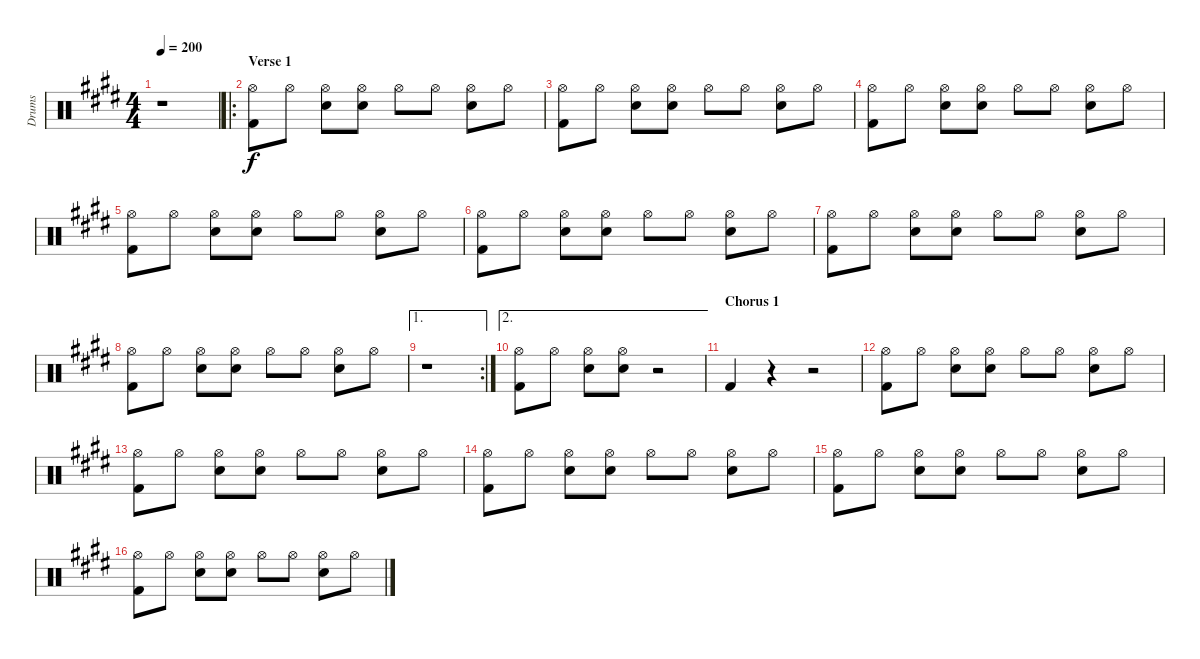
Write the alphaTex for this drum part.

\track ("Drums" "Drums") {instrument percussion}
\staff {score}
\articulation defaults
\ts (4 4)
\section ("" "")
\tempo 200
\clef neutral
\ks e
r.1{dy f} |
\ro
\section ("" "Verse 1")
("Hi-Hat (open)" "Kick (hit) 2").8 "Hi-Hat (open)".8 ("Hi-Hat (open)" "Snare (hit) 2").8 ("Hi-Hat (open)" "Snare (hit) 2").8 "Hi-Hat (open)".8 "Hi-Hat (open)".8 ("Hi-Hat (open)" "Snare (hit) 2").8 "Hi-Hat (open)".8 |
("Hi-Hat (open)" "Kick (hit) 2").8 "Hi-Hat (open)".8 ("Hi-Hat (open)" "Snare (hit) 2").8 ("Hi-Hat (open)" "Snare (hit) 2").8 "Hi-Hat (open)".8 "Hi-Hat (open)".8 ("Hi-Hat (open)" "Snare (hit) 2").8 "Hi-Hat (open)".8 |
("Hi-Hat (open)" "Kick (hit) 2").8 "Hi-Hat (open)".8 ("Hi-Hat (open)" "Snare (hit) 2").8 ("Hi-Hat (open)" "Snare (hit) 2").8 "Hi-Hat (open)".8 "Hi-Hat (open)".8 ("Hi-Hat (open)" "Snare (hit) 2").8 "Hi-Hat (open)".8 |
("Hi-Hat (open)" "Kick (hit) 2").8 "Hi-Hat (open)".8 ("Hi-Hat (open)" "Snare (hit) 2").8 ("Hi-Hat (open)" "Snare (hit) 2").8 "Hi-Hat (open)".8 "Hi-Hat (open)".8 ("Hi-Hat (open)" "Snare (hit) 2").8 "Hi-Hat (open)".8 |
("Hi-Hat (open)" "Kick (hit) 2").8 "Hi-Hat (open)".8 ("Hi-Hat (open)" "Snare (hit) 2").8 ("Hi-Hat (open)" "Snare (hit) 2").8 "Hi-Hat (open)".8 "Hi-Hat (open)".8 ("Hi-Hat (open)" "Snare (hit) 2").8 "Hi-Hat (open)".8 |
("Hi-Hat (open)" "Kick (hit) 2").8 "Hi-Hat (open)".8 ("Hi-Hat (open)" "Snare (hit) 2").8 ("Hi-Hat (open)" "Snare (hit) 2").8 "Hi-Hat (open)".8 "Hi-Hat (open)".8 ("Hi-Hat (open)" "Snare (hit) 2").8 "Hi-Hat (open)".8 |
("Hi-Hat (open)" "Kick (hit) 2").8 "Hi-Hat (open)".8 ("Hi-Hat (open)" "Snare (hit) 2").8 ("Hi-Hat (open)" "Snare (hit) 2").8 "Hi-Hat (open)".8 "Hi-Hat (open)".8 ("Hi-Hat (open)" "Snare (hit) 2").8 "Hi-Hat (open)".8 |
\ae 1
\rc 2
r.1 |
\ae 2
("Hi-Hat (open)" "Kick (hit) 2").8 "Hi-Hat (open)".8 ("Hi-Hat (open)" "Snare (hit) 2").8 ("Hi-Hat (open)" "Snare (hit) 2").8 r.2 |
\section ("" "Chorus 1")
"Kick (hit) 2".4 r.4 r.2 |
("Hi-Hat (open)" "Kick (hit) 2").8 "Hi-Hat (open)".8 ("Hi-Hat (open)" "Snare (hit) 2").8 ("Hi-Hat (open)" "Snare (hit) 2").8 "Hi-Hat (open)".8 "Hi-Hat (open)".8 ("Hi-Hat (open)" "Snare (hit) 2").8 "Hi-Hat (open)".8 |
("Hi-Hat (open)" "Kick (hit) 2").8 "Hi-Hat (open)".8 ("Hi-Hat (open)" "Snare (hit) 2").8 ("Hi-Hat (open)" "Snare (hit) 2").8 "Hi-Hat (open)".8 "Hi-Hat (open)".8 ("Hi-Hat (open)" "Snare (hit) 2").8 "Hi-Hat (open)".8 |
("Hi-Hat (open)" "Kick (hit) 2").8 "Hi-Hat (open)".8 ("Hi-Hat (open)" "Snare (hit) 2").8 ("Hi-Hat (open)" "Snare (hit) 2").8 "Hi-Hat (open)".8 "Hi-Hat (open)".8 ("Hi-Hat (open)" "Snare (hit) 2").8 "Hi-Hat (open)".8 |
("Hi-Hat (open)" "Kick (hit) 2").8 "Hi-Hat (open)".8 ("Hi-Hat (open)" "Snare (hit) 2").8 ("Hi-Hat (open)" "Snare (hit) 2").8 "Hi-Hat (open)".8 "Hi-Hat (open)".8 ("Hi-Hat (open)" "Snare (hit) 2").8 "Hi-Hat (open)".8 |
("Hi-Hat (open)" "Kick (hit) 2").8 "Hi-Hat (open)".8 ("Hi-Hat (open)" "Snare (hit) 2").8 ("Hi-Hat (open)" "Snare (hit) 2").8 "Hi-Hat (open)".8 "Hi-Hat (open)".8 ("Hi-Hat (open)" "Snare (hit) 2").8 "Hi-Hat (open)".8
